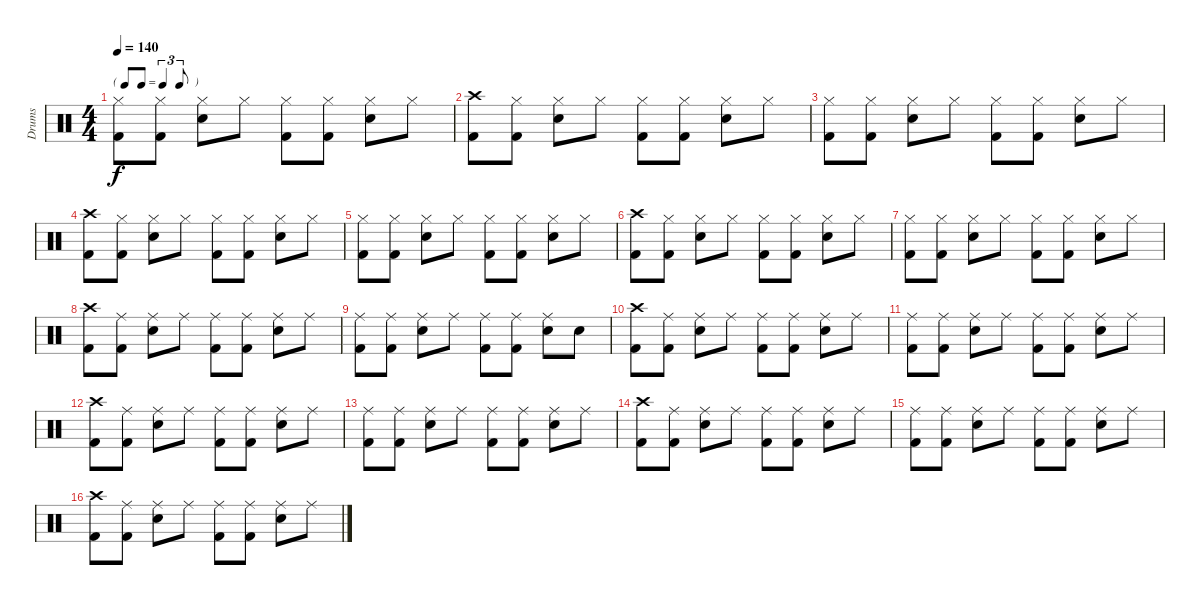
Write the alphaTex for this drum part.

\track ("Drums" "Drums") {instrument percussion}
\staff {score}
\articulation defaults
\ts (4 4)
\tf triplet8th
\tempo 140
\clef neutral
\ks c
("Hi-Hat (closed)" "Kick (hit) 2").8{dy f} ("Hi-Hat (closed)" "Kick (hit) 2").8 ("Hi-Hat (closed)" "Electric Snare (hit)").8 "Hi-Hat (closed)".8 ("Hi-Hat (closed)" "Kick (hit) 2").8 ("Hi-Hat (closed)" "Kick (hit) 2").8 ("Hi-Hat (closed)" "Electric Snare (hit)").8 "Hi-Hat (closed)".8 |
("Crash high (hit)" "Kick (hit) 2").8 ("Hi-Hat (closed)" "Kick (hit) 2").8 ("Hi-Hat (closed)" "Electric Snare (hit)").8 "Hi-Hat (closed)".8 ("Hi-Hat (closed)" "Kick (hit) 2").8 ("Hi-Hat (closed)" "Kick (hit) 2").8 ("Hi-Hat (closed)" "Electric Snare (hit)").8 "Hi-Hat (closed)".8 |
("Hi-Hat (closed)" "Kick (hit) 2").8 ("Hi-Hat (closed)" "Kick (hit) 2").8 ("Hi-Hat (closed)" "Electric Snare (hit)").8 "Hi-Hat (closed)".8 ("Hi-Hat (closed)" "Kick (hit) 2").8 ("Hi-Hat (closed)" "Kick (hit) 2").8 ("Hi-Hat (closed)" "Electric Snare (hit)").8 "Hi-Hat (closed)".8 |
("Crash high (hit)" "Kick (hit) 2").8 ("Hi-Hat (closed)" "Kick (hit) 2").8 ("Hi-Hat (closed)" "Electric Snare (hit)").8 "Hi-Hat (closed)".8 ("Hi-Hat (closed)" "Kick (hit) 2").8 ("Hi-Hat (closed)" "Kick (hit) 2").8 ("Hi-Hat (closed)" "Electric Snare (hit)").8 "Hi-Hat (closed)".8 |
("Hi-Hat (closed)" "Kick (hit) 2").8 ("Hi-Hat (closed)" "Kick (hit) 2").8 ("Hi-Hat (closed)" "Electric Snare (hit)").8 "Hi-Hat (closed)".8 ("Hi-Hat (closed)" "Kick (hit) 2").8 ("Hi-Hat (closed)" "Kick (hit) 2").8 ("Hi-Hat (closed)" "Electric Snare (hit)").8 "Hi-Hat (closed)".8 |
("Crash high (hit)" "Kick (hit) 2").8 ("Hi-Hat (closed)" "Kick (hit) 2").8 ("Hi-Hat (closed)" "Electric Snare (hit)").8 "Hi-Hat (closed)".8 ("Hi-Hat (closed)" "Kick (hit) 2").8 ("Hi-Hat (closed)" "Kick (hit) 2").8 ("Hi-Hat (closed)" "Electric Snare (hit)").8 "Hi-Hat (closed)".8 |
("Hi-Hat (closed)" "Kick (hit) 2").8 ("Hi-Hat (closed)" "Kick (hit) 2").8 ("Hi-Hat (closed)" "Electric Snare (hit)").8 "Hi-Hat (closed)".8 ("Hi-Hat (closed)" "Kick (hit) 2").8 ("Hi-Hat (closed)" "Kick (hit) 2").8 ("Hi-Hat (closed)" "Electric Snare (hit)").8 "Hi-Hat (closed)".8 |
("Crash high (hit)" "Kick (hit) 2").8 ("Ride (middle)" "Kick (hit) 2").8 ("Ride (middle)" "Electric Snare (hit)").8 "Ride (middle)".8 ("Ride (middle)" "Kick (hit) 2").8 ("Ride (middle)" "Kick (hit) 2").8 ("Ride (middle)" "Electric Snare (hit)").8 "Ride (middle)".8 |
("Ride (middle)" "Kick (hit) 2").8 ("Ride (middle)" "Kick (hit) 2").8 ("Ride (middle)" "Electric Snare (hit)").8 "Ride (middle)".8 ("Ride (middle)" "Kick (hit) 2").8 ("Ride (middle)" "Kick (hit) 2").8 ("Ride (middle)" "Electric Snare (hit)").8 "Snare (hit)".8 |
("Crash high (hit)" "Kick (hit) 2").8 ("Ride (middle)" "Kick (hit) 2").8 ("Ride (middle)" "Electric Snare (hit)").8 "Ride (middle)".8 ("Ride (middle)" "Kick (hit) 2").8 ("Ride (middle)" "Kick (hit) 2").8 ("Ride (middle)" "Electric Snare (hit)").8 "Ride (middle)".8 |
("Ride (middle)" "Kick (hit) 2").8 ("Ride (middle)" "Kick (hit) 2").8 ("Ride (middle)" "Electric Snare (hit)").8 "Ride (middle)".8 ("Ride (middle)" "Kick (hit) 2").8 ("Ride (middle)" "Kick (hit) 2").8 ("Ride (middle)" "Electric Snare (hit)").8 "Ride (middle)".8 |
("Crash high (hit)" "Kick (hit) 2").8 ("Ride (middle)" "Kick (hit) 2").8 ("Ride (middle)" "Electric Snare (hit)").8 "Ride (middle)".8 ("Ride (middle)" "Kick (hit) 2").8 ("Ride (middle)" "Kick (hit) 2").8 ("Ride (middle)" "Electric Snare (hit)").8 "Ride (middle)".8 |
("Ride (middle)" "Kick (hit) 2").8 ("Ride (middle)" "Kick (hit) 2").8 ("Ride (middle)" "Electric Snare (hit)").8 "Ride (middle)".8 ("Ride (middle)" "Kick (hit) 2").8 ("Ride (middle)" "Kick (hit) 2").8 ("Ride (middle)" "Electric Snare (hit)").8 "Ride (middle)".8 |
("Crash high (hit)" "Kick (hit) 2").8 ("Ride (middle)" "Kick (hit) 2").8 ("Ride (middle)" "Electric Snare (hit)").8 "Ride (middle)".8 ("Ride (middle)" "Kick (hit) 2").8 ("Ride (middle)" "Kick (hit) 2").8 ("Ride (middle)" "Electric Snare (hit)").8 "Ride (middle)".8 |
("Ride (middle)" "Kick (hit) 2").8 ("Ride (middle)" "Kick (hit) 2").8 ("Ride (middle)" "Electric Snare (hit)").8 "Ride (middle)".8 ("Ride (middle)" "Kick (hit) 2").8 ("Ride (middle)" "Kick (hit) 2").8 ("Ride (middle)" "Electric Snare (hit)").8 "Ride (middle)".8 |
("Crash high (hit)" "Kick (hit) 2").8 ("Ride (middle)" "Kick (hit) 2").8 ("Ride (middle)" "Electric Snare (hit)").8 "Ride (middle)".8 ("Ride (middle)" "Kick (hit) 2").8 ("Ride (middle)" "Kick (hit) 2").8 ("Ride (middle)" "Electric Snare (hit)").8 "Ride (middle)".8
